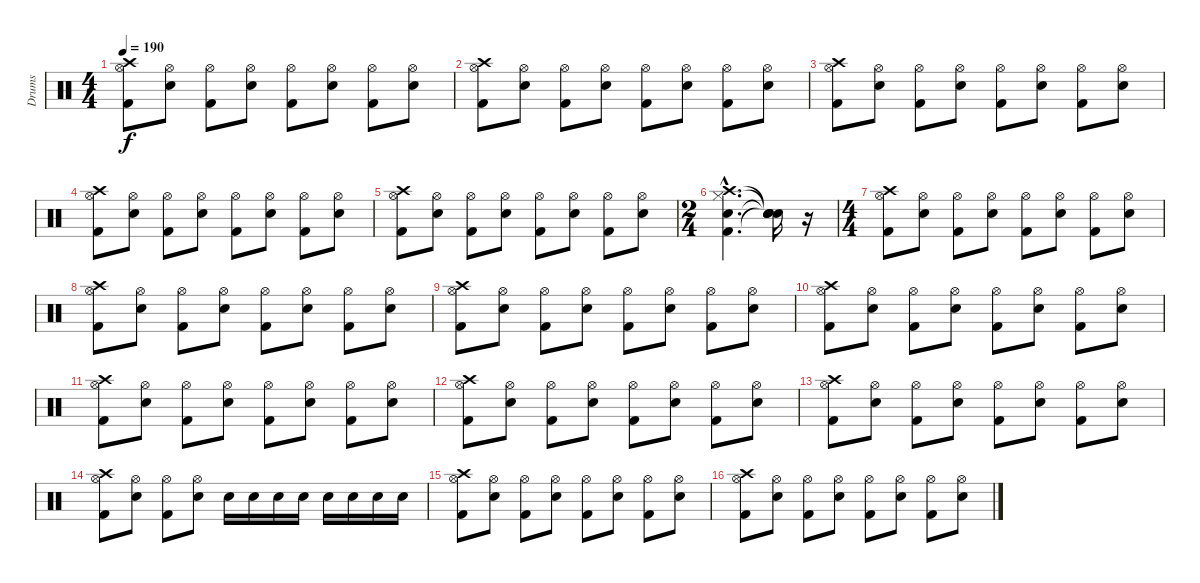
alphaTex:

\track ("Drums" "Drums") {instrument percussion}
\staff {score}
\articulation defaults
\ts (4 4)
\tempo 190
\clef neutral
\ks c
("Kick (hit) 2" "Hi-Hat (open)" "Crash high (hit)").8{dy f} ("Snare (hit) 2" "Hi-Hat (open)").8 ("Kick (hit) 2" "Hi-Hat (open)").8 ("Snare (hit) 2" "Hi-Hat (open)").8 ("Kick (hit) 2" "Hi-Hat (open)").8 ("Snare (hit) 2" "Hi-Hat (open)").8 ("Kick (hit) 2" "Hi-Hat (open)").8 ("Snare (hit) 2" "Hi-Hat (open)").8 |
("Kick (hit) 2" "Hi-Hat (open)" "Crash high (hit)").8 ("Snare (hit) 2" "Hi-Hat (open)").8 ("Kick (hit) 2" "Hi-Hat (open)").8 ("Snare (hit) 2" "Hi-Hat (open)").8 ("Kick (hit) 2" "Hi-Hat (open)").8 ("Snare (hit) 2" "Hi-Hat (open)").8 ("Kick (hit) 2" "Hi-Hat (open)").8 ("Snare (hit) 2" "Hi-Hat (open)").8 |
("Kick (hit) 2" "Hi-Hat (open)" "Crash high (hit)").8 ("Snare (hit) 2" "Hi-Hat (open)").8 ("Kick (hit) 2" "Hi-Hat (open)").8 ("Snare (hit) 2" "Hi-Hat (open)").8 ("Kick (hit) 2" "Hi-Hat (open)").8 ("Snare (hit) 2" "Hi-Hat (open)").8 ("Kick (hit) 2" "Hi-Hat (open)").8 ("Snare (hit) 2" "Hi-Hat (open)").8 |
("Kick (hit) 2" "Hi-Hat (open)" "Crash high (hit)").8 ("Snare (hit) 2" "Hi-Hat (open)").8 ("Kick (hit) 2" "Hi-Hat (open)").8 ("Snare (hit) 2" "Hi-Hat (open)").8 ("Kick (hit) 2" "Hi-Hat (open)").8 ("Snare (hit) 2" "Hi-Hat (open)").8 ("Kick (hit) 2" "Hi-Hat (open)").8 ("Snare (hit) 2" "Hi-Hat (open)").8 |
("Kick (hit) 2" "Hi-Hat (open)" "Crash high (hit)").8 ("Snare (hit) 2" "Hi-Hat (open)").8 ("Kick (hit) 2" "Hi-Hat (open)").8 ("Snare (hit) 2" "Hi-Hat (open)").8 ("Kick (hit) 2" "Hi-Hat (open)").8 ("Snare (hit) 2" "Hi-Hat (open)").8 ("Kick (hit) 2" "Hi-Hat (open)").8 ("Snare (hit) 2" "Hi-Hat (open)").8 |
\ts (2 4)
("Kick (hit) 2"{hac} "Snare (hit) 2"{hac} "Hi-Hat (closed)"{hac} "Crash high (hit)"{hac}).4{d} ("Snare (hit)"{t} "Snare (hit)"{t} "Snare (hit)"{t} "Snare (hit)"{t}).16 r.16 |
\ts (4 4)
("Kick (hit) 2" "Hi-Hat (open)" "Crash high (hit)").8 ("Snare (hit) 2" "Hi-Hat (open)").8 ("Kick (hit) 2" "Hi-Hat (open)").8 ("Snare (hit) 2" "Hi-Hat (open)").8 ("Kick (hit) 2" "Hi-Hat (open)").8 ("Snare (hit) 2" "Hi-Hat (open)").8 ("Kick (hit) 2" "Hi-Hat (open)").8 ("Snare (hit) 2" "Hi-Hat (open)").8 |
("Kick (hit) 2" "Hi-Hat (open)" "Crash high (hit)").8 ("Snare (hit) 2" "Hi-Hat (open)").8 ("Kick (hit) 2" "Hi-Hat (open)").8 ("Snare (hit) 2" "Hi-Hat (open)").8 ("Kick (hit) 2" "Hi-Hat (open)").8 ("Snare (hit) 2" "Hi-Hat (open)").8 ("Kick (hit) 2" "Hi-Hat (open)").8 ("Snare (hit) 2" "Hi-Hat (open)").8 |
("Kick (hit) 2" "Hi-Hat (open)" "Crash high (hit)").8 ("Snare (hit) 2" "Hi-Hat (open)").8 ("Kick (hit) 2" "Hi-Hat (open)").8 ("Snare (hit) 2" "Hi-Hat (open)").8 ("Kick (hit) 2" "Hi-Hat (open)").8 ("Snare (hit) 2" "Hi-Hat (open)").8 ("Kick (hit) 2" "Hi-Hat (open)").8 ("Snare (hit) 2" "Hi-Hat (open)").8 |
("Kick (hit) 2" "Hi-Hat (open)" "Crash high (hit)").8 ("Snare (hit) 2" "Hi-Hat (open)").8 ("Kick (hit) 2" "Hi-Hat (open)").8 ("Snare (hit) 2" "Hi-Hat (open)").8 ("Kick (hit) 2" "Hi-Hat (open)").8 ("Snare (hit) 2" "Hi-Hat (open)").8 ("Kick (hit) 2" "Hi-Hat (open)").8 ("Snare (hit) 2" "Hi-Hat (open)").8 |
("Kick (hit) 2" "Hi-Hat (open)" "Crash high (hit)").8 ("Snare (hit) 2" "Hi-Hat (open)").8 ("Kick (hit) 2" "Hi-Hat (open)").8 ("Snare (hit) 2" "Hi-Hat (open)").8 ("Kick (hit) 2" "Hi-Hat (open)").8 ("Snare (hit) 2" "Hi-Hat (open)").8 ("Kick (hit) 2" "Hi-Hat (open)").8 ("Snare (hit) 2" "Hi-Hat (open)").8 |
("Kick (hit) 2" "Hi-Hat (open)" "Crash high (hit)").8 ("Snare (hit) 2" "Hi-Hat (open)").8 ("Kick (hit) 2" "Hi-Hat (open)").8 ("Snare (hit) 2" "Hi-Hat (open)").8 ("Kick (hit) 2" "Hi-Hat (open)").8 ("Snare (hit) 2" "Hi-Hat (open)").8 ("Kick (hit) 2" "Hi-Hat (open)").8 ("Snare (hit) 2" "Hi-Hat (open)").8 |
("Kick (hit) 2" "Hi-Hat (open)" "Crash high (hit)").8 ("Snare (hit) 2" "Hi-Hat (open)").8 ("Kick (hit) 2" "Hi-Hat (open)").8 ("Snare (hit) 2" "Hi-Hat (open)").8 ("Kick (hit) 2" "Hi-Hat (open)").8 ("Snare (hit) 2" "Hi-Hat (open)").8 ("Kick (hit) 2" "Hi-Hat (open)").8 ("Snare (hit) 2" "Hi-Hat (open)").8 |
("Kick (hit) 2" "Hi-Hat (open)" "Crash high (hit)").8 ("Snare (hit) 2" "Hi-Hat (open)").8 ("Kick (hit) 2" "Hi-Hat (open)").8 ("Snare (hit) 2" "Hi-Hat (open)").8 "Snare (hit) 2".16 "Snare (hit) 2".16 "Snare (hit) 2".16 "Snare (hit) 2".16 "Snare (hit) 2".16 "Snare (hit) 2".16 "Snare (hit) 2".16 "Snare (hit) 2".16 |
("Kick (hit) 2" "Hi-Hat (open)" "Crash high (hit)").8 ("Snare (hit) 2" "Hi-Hat (open)").8 ("Kick (hit) 2" "Hi-Hat (open)").8 ("Snare (hit) 2" "Hi-Hat (open)").8 ("Kick (hit) 2" "Hi-Hat (open)").8 ("Snare (hit) 2" "Hi-Hat (open)").8 ("Kick (hit) 2" "Hi-Hat (open)").8 ("Snare (hit) 2" "Hi-Hat (open)").8 |
("Kick (hit) 2" "Hi-Hat (open)" "Crash high (hit)").8 ("Snare (hit) 2" "Hi-Hat (open)").8 ("Kick (hit) 2" "Hi-Hat (open)").8 ("Snare (hit) 2" "Hi-Hat (open)").8 ("Kick (hit) 2" "Hi-Hat (open)").8 ("Snare (hit) 2" "Hi-Hat (open)").8 ("Kick (hit) 2" "Hi-Hat (open)").8 ("Snare (hit) 2" "Hi-Hat (open)").8
